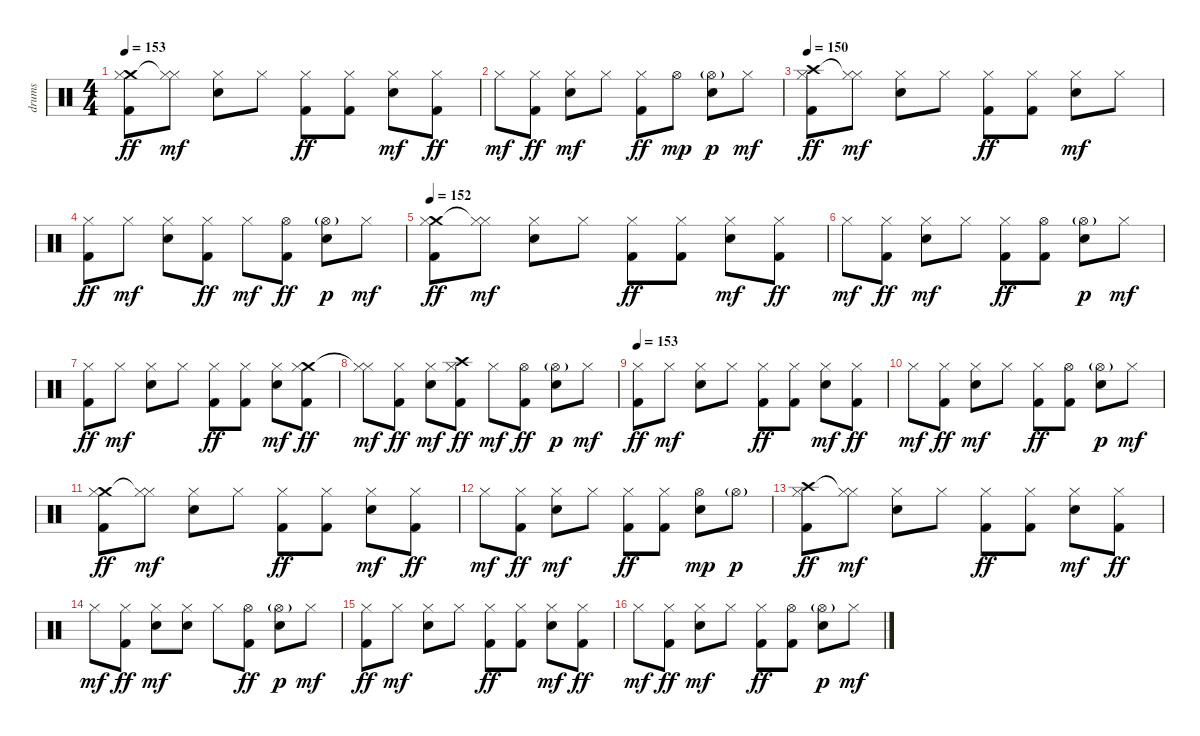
\track ("drums" "drums") {instrument percussion}
\staff {score}
\articulation defaults
\ts (4 4)
\tempo 153
\clef neutral
\ks c
("Crash medium (hit)" "Hi-Hat (closed)" "Kick (hit) 2").8{dy ff} ("Hi-Hat (closed)"{t} "Hi-Hat (closed)").8{dy mf} ("Hi-Hat (closed)" "Electric Snare (hit)").8 "Hi-Hat (closed)".8 ("Hi-Hat (closed)" "Kick (hit) 2").8{dy ff} ("Hi-Hat (closed)" "Kick (hit) 2").8 ("Hi-Hat (closed)" "Electric Snare (hit)").8{dy mf} ("Hi-Hat (closed)" "Kick (hit) 2").8{dy ff} |
"Hi-Hat (closed)".8{dy mf} ("Hi-Hat (closed)" "Kick (hit) 2").8{dy ff} ("Hi-Hat (closed)" "Electric Snare (hit)").8{dy mf} "Hi-Hat (closed)".8 ("Hi-Hat (closed)" "Kick (hit) 2").8{dy ff} "Hi-Hat (open)".8{dy mp} ("Hi-Hat (open)"{g} "Electric Snare (hit)").8{dy p} "Hi-Hat (closed)".8{dy mf} |
\tempo 150
("Crash high (hit)" "Hi-Hat (closed)" "Kick (hit) 2").8{dy ff} ("Hi-Hat (closed)"{t} "Hi-Hat (closed)").8{dy mf} ("Hi-Hat (closed)" "Electric Snare (hit)").8 "Hi-Hat (closed)".8 ("Hi-Hat (closed)" "Kick (hit) 2").8{dy ff} ("Hi-Hat (closed)" "Kick (hit) 2").8 ("Hi-Hat (closed)" "Electric Snare (hit)").8{dy mf} "Hi-Hat (closed)".8 |
("Hi-Hat (closed)" "Kick (hit) 2").8{dy ff} "Hi-Hat (closed)".8{dy mf} ("Hi-Hat (closed)" "Electric Snare (hit)").8 ("Hi-Hat (closed)" "Kick (hit) 2").8{dy ff} "Hi-Hat (closed)".8{dy mf} ("Hi-Hat (open)" "Kick (hit) 2").8{dy ff} ("Hi-Hat (open)"{g} "Electric Snare (hit)").8{dy p} "Hi-Hat (closed)".8{dy mf} |
\tempo 152
("Crash medium (hit)" "Hi-Hat (closed)" "Kick (hit) 2").8{dy ff} ("Hi-Hat (closed)"{t} "Hi-Hat (closed)").8{dy mf} ("Hi-Hat (closed)" "Electric Snare (hit)").8 "Hi-Hat (closed)".8 ("Hi-Hat (closed)" "Kick (hit) 2").8{dy ff} ("Hi-Hat (closed)" "Kick (hit) 2").8 ("Hi-Hat (closed)" "Electric Snare (hit)").8{dy mf} ("Hi-Hat (closed)" "Kick (hit) 2").8{dy ff} |
"Hi-Hat (closed)".8{dy mf} ("Hi-Hat (closed)" "Kick (hit) 2").8{dy ff} ("Hi-Hat (closed)" "Electric Snare (hit)").8{dy mf} "Hi-Hat (closed)".8 ("Hi-Hat (closed)" "Kick (hit) 2").8{dy ff} ("Hi-Hat (open)" "Kick (hit) 2").8 ("Hi-Hat (open)"{g} "Electric Snare (hit)").8{dy p} "Hi-Hat (closed)".8{dy mf} |
("Hi-Hat (closed)" "Kick (hit) 2").8{dy ff} "Hi-Hat (closed)".8{dy mf} ("Hi-Hat (closed)" "Electric Snare (hit)").8 "Hi-Hat (closed)".8 ("Hi-Hat (closed)" "Kick (hit) 2").8{dy ff} ("Hi-Hat (closed)" "Kick (hit) 2").8 ("Hi-Hat (closed)" "Electric Snare (hit)").8{dy mf} ("Crash medium (hit)" "Hi-Hat (closed)" "Kick (hit) 2").8{dy ff} |
("Hi-Hat (closed)"{t} "Hi-Hat (closed)").8{dy mf} ("Hi-Hat (closed)" "Kick (hit) 2").8{dy ff} ("Hi-Hat (closed)" "Electric Snare (hit)").8{dy mf} ("Crash high (hit)" "Hi-Hat (closed)" "Kick (hit) 2").8{dy ff} "Hi-Hat (closed)".8{dy mf} ("Hi-Hat (open)" "Kick (hit) 2").8{dy ff} ("Hi-Hat (open)"{g} "Electric Snare (hit)").8{dy p} "Hi-Hat (closed)".8{dy mf} |
\tempo 153
("Hi-Hat (closed)" "Kick (hit) 2").8{dy ff} "Hi-Hat (closed)".8{dy mf} ("Hi-Hat (closed)" "Electric Snare (hit)").8 "Hi-Hat (closed)".8 ("Hi-Hat (closed)" "Kick (hit) 2").8{dy ff} ("Hi-Hat (closed)" "Kick (hit) 2").8 ("Hi-Hat (closed)" "Electric Snare (hit)").8{dy mf} ("Hi-Hat (closed)" "Kick (hit) 2").8{dy ff} |
"Hi-Hat (closed)".8{dy mf} ("Hi-Hat (closed)" "Kick (hit) 2").8{dy ff} ("Hi-Hat (closed)" "Electric Snare (hit)").8{dy mf} "Hi-Hat (closed)".8 ("Hi-Hat (closed)" "Kick (hit) 2").8{dy ff} ("Hi-Hat (open)" "Kick (hit) 2").8 ("Hi-Hat (open)"{g} "Electric Snare (hit)").8{dy p} "Hi-Hat (closed)".8{dy mf} |
("Crash medium (hit)" "Hi-Hat (closed)" "Kick (hit) 2").8{dy ff} ("Hi-Hat (closed)"{t} "Hi-Hat (closed)").8{dy mf} ("Hi-Hat (closed)" "Electric Snare (hit)").8 "Hi-Hat (closed)".8 ("Hi-Hat (closed)" "Kick (hit) 2").8{dy ff} ("Hi-Hat (closed)" "Kick (hit) 2").8 ("Hi-Hat (closed)" "Electric Snare (hit)").8{dy mf} ("Hi-Hat (closed)" "Kick (hit) 2").8{dy ff} |
"Hi-Hat (closed)".8{dy mf} ("Hi-Hat (closed)" "Kick (hit) 2").8{dy ff} ("Hi-Hat (closed)" "Electric Snare (hit)").8{dy mf} "Hi-Hat (closed)".8 ("Hi-Hat (closed)" "Kick (hit) 2").8{dy ff} ("Hi-Hat (closed)" "Kick (hit) 2").8 ("Hi-Hat (open)" "Electric Snare (hit)").8{dy mp} "Hi-Hat (open)"{g}.8{dy p} |
("Crash high (hit)" "Hi-Hat (closed)" "Kick (hit) 2").8{dy ff} ("Hi-Hat (closed)"{t} "Hi-Hat (closed)").8{dy mf} ("Hi-Hat (closed)" "Electric Snare (hit)").8 "Hi-Hat (closed)".8 ("Hi-Hat (closed)" "Kick (hit) 2").8{dy ff} ("Hi-Hat (closed)" "Kick (hit) 2").8 ("Hi-Hat (closed)" "Electric Snare (hit)").8{dy mf} ("Hi-Hat (closed)" "Kick (hit) 2").8{dy ff} |
"Hi-Hat (closed)".8{dy mf} ("Hi-Hat (closed)" "Kick (hit) 2").8{dy ff} ("Hi-Hat (closed)" "Electric Snare (hit)").8{dy mf} ("Hi-Hat (closed)" "Electric Snare (hit)").8 "Hi-Hat (closed)".8 ("Hi-Hat (open)" "Kick (hit) 2").8{dy ff} ("Hi-Hat (open)"{g} "Electric Snare (hit)").8{dy p} "Hi-Hat (closed)".8{dy mf} |
("Hi-Hat (closed)" "Kick (hit) 2").8{dy ff} "Hi-Hat (closed)".8{dy mf} ("Hi-Hat (closed)" "Electric Snare (hit)").8 "Hi-Hat (closed)".8 ("Hi-Hat (closed)" "Kick (hit) 2").8{dy ff} ("Hi-Hat (closed)" "Kick (hit) 2").8 ("Hi-Hat (closed)" "Electric Snare (hit)").8{dy mf} ("Hi-Hat (closed)" "Kick (hit) 2").8{dy ff} |
"Hi-Hat (closed)".8{dy mf} ("Hi-Hat (closed)" "Kick (hit) 2").8{dy ff} ("Hi-Hat (closed)" "Electric Snare (hit)").8{dy mf} "Hi-Hat (closed)".8 ("Hi-Hat (closed)" "Kick (hit) 2").8{dy ff} ("Hi-Hat (open)" "Kick (hit) 2").8 ("Hi-Hat (open)"{g} "Electric Snare (hit)").8{dy p} "Hi-Hat (closed)".8{dy mf}
